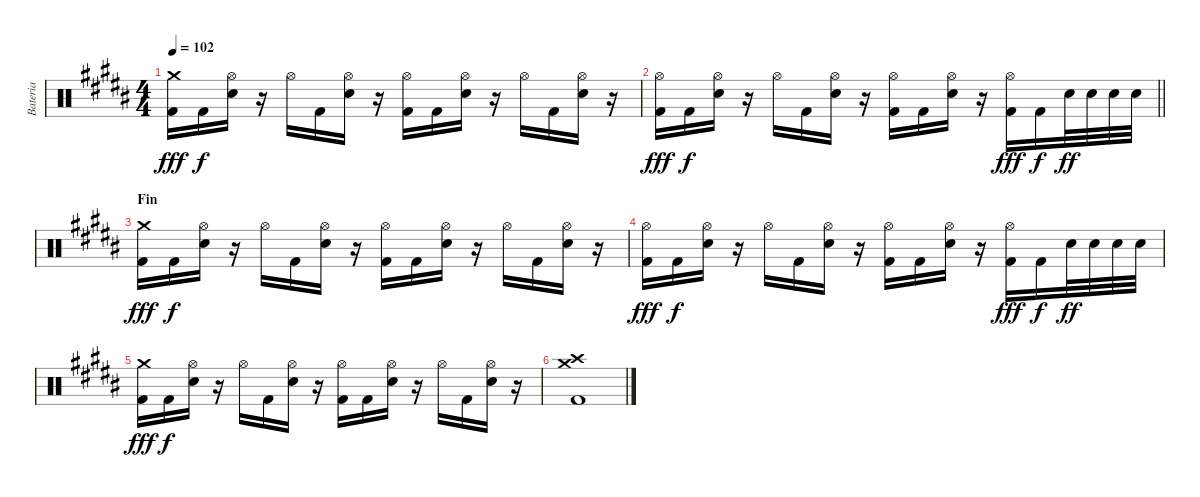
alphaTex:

\track ("Bateria" "Bateria") {instrument percussion}
\staff {score}
\articulation defaults
\ts (4 4)
\tempo 102
\clef neutral
\ks b
("Crash medium (hit)" "Kick (hit) 2").16{dy fff} "Kick (hit) 2".16{dy f} ("Hi-Hat (open)" "Snare (hit) 2").16 r.16 "Hi-Hat (open)".16 "Kick (hit) 2".16 ("Hi-Hat (open)" "Snare (hit) 2").16 r.16 ("Hi-Hat (open)" "Kick (hit) 2").16 "Kick (hit) 2".16 ("Hi-Hat (open)" "Snare (hit) 2").16 r.16 "Hi-Hat (open)".16 "Kick (hit) 2".16 ("Hi-Hat (open)" "Snare (hit) 2").16 r.16 |
\barLineRight lightlight
("Hi-Hat (open)" "Kick (hit) 2").16{dy fff} "Kick (hit) 2".16{dy f} ("Hi-Hat (open)" "Snare (hit) 2").16 r.16 "Hi-Hat (open)".16 "Kick (hit) 2".16 ("Hi-Hat (open)" "Snare (hit) 2").16 r.16 ("Hi-Hat (open)" "Kick (hit) 2").16 "Kick (hit) 2".16 ("Hi-Hat (open)" "Snare (hit) 2").16 r.16 ("Hi-Hat (open)" "Kick (hit) 2").16{dy fff} "Kick (hit) 2".16{dy f} "Snare (hit) 2".32{dy ff} "Snare (hit) 2".32 "Snare (hit) 2".32 "Snare (hit) 2".32 |
\section ("" "Fin")
("Crash medium (hit)" "Kick (hit) 2").16{dy fff} "Kick (hit) 2".16{dy f} ("Hi-Hat (open)" "Snare (hit) 2").16 r.16 "Hi-Hat (open)".16 "Kick (hit) 2".16 ("Hi-Hat (open)" "Snare (hit) 2").16 r.16 ("Hi-Hat (open)" "Kick (hit) 2").16 "Kick (hit) 2".16 ("Hi-Hat (open)" "Snare (hit) 2").16 r.16 "Hi-Hat (open)".16 "Kick (hit) 2".16 ("Hi-Hat (open)" "Snare (hit) 2").16 r.16 |
("Hi-Hat (open)" "Kick (hit) 2").16{dy fff} "Kick (hit) 2".16{dy f} ("Hi-Hat (open)" "Snare (hit) 2").16 r.16 "Hi-Hat (open)".16 "Kick (hit) 2".16 ("Hi-Hat (open)" "Snare (hit) 2").16 r.16 ("Hi-Hat (open)" "Kick (hit) 2").16 "Kick (hit) 2".16 ("Hi-Hat (open)" "Snare (hit) 2").16 r.16 ("Hi-Hat (open)" "Kick (hit) 2").16{dy fff} "Kick (hit) 2".16{dy f} "Snare (hit) 2".32{dy ff} "Snare (hit) 2".32 "Snare (hit) 2".32 "Snare (hit) 2".32 |
("Crash medium (hit)" "Kick (hit) 2").16{dy fff} "Kick (hit) 2".16{dy f} ("Hi-Hat (open)" "Snare (hit) 2").16 r.16 "Hi-Hat (open)".16 "Kick (hit) 2".16 ("Hi-Hat (open)" "Snare (hit) 2").16 r.16 ("Hi-Hat (open)" "Kick (hit) 2").16 "Kick (hit) 2".16 ("Hi-Hat (open)" "Snare (hit) 2").16 r.16 "Hi-Hat (open)".16 "Kick (hit) 2".16 ("Hi-Hat (open)" "Snare (hit) 2").16 r.16 |
("Crash medium (hit)" "Crash high (hit)" "Kick (hit) 2").1
